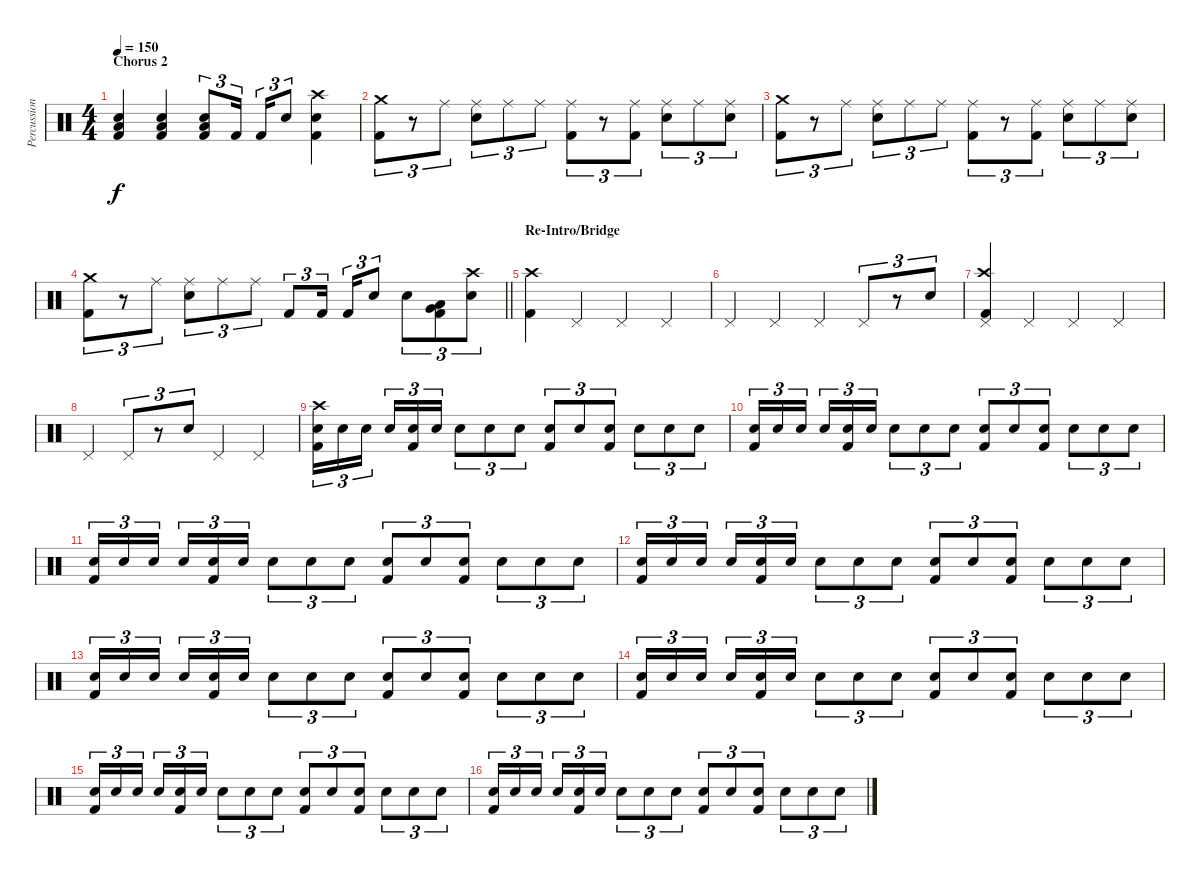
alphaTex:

\track ("Percussion" "Percussion") {instrument percussion}
\staff {score}
\articulation defaults
\ts (4 4)
\section ("" "Chorus 2")
\tempo 150
\clef neutral
\ks c
("Electric Snare (hit)" "Low Floor Tom (hit)" "Kick (hit) 2").4{dy f} ("Electric Snare (hit)" "Low Floor Tom (hit)" "Kick (hit) 2").4 ("Electric Snare (hit)" "Low Floor Tom (hit)" "Kick (hit) 2").8{tu (3 2)} "Kick (hit) 2".16{tu (3 2) beam splitsecondary} "Kick (hit) 2".16{tu (3 2)} "Electric Snare (hit)".8{tu (3 2)} ("Crash high (hit)" "Electric Snare (hit)" "Kick (hit) 2").4 |
("Crash medium (hit)" "Kick (hit) 2").8{tu (3 2)} r.8{tu (3 2)} "Ride (middle)".8{tu (3 2)} ("Ride (middle)" "Electric Snare (hit)").8{tu (3 2)} "Ride (middle)".8{tu (3 2)} "Ride (middle)".8{tu (3 2)} ("Ride (middle)" "Kick (hit) 2").8{tu (3 2)} r.8{tu (3 2)} ("Ride (middle)" "Kick (hit) 2").8{tu (3 2)} ("Ride (middle)" "Electric Snare (hit)").8{tu (3 2)} "Ride (middle)".8{tu (3 2)} ("Ride (middle)" "Electric Snare (hit)").8{tu (3 2)} |
("Crash medium (hit)" "Kick (hit) 2").8{tu (3 2)} r.8{tu (3 2)} "Ride (middle)".8{tu (3 2)} ("Ride (middle)" "Electric Snare (hit)").8{tu (3 2)} "Ride (middle)".8{tu (3 2)} "Ride (middle)".8{tu (3 2)} ("Ride (middle)" "Kick (hit) 2").8{tu (3 2)} r.8{tu (3 2)} ("Ride (middle)" "Kick (hit) 2").8{tu (3 2)} ("Ride (middle)" "Electric Snare (hit)").8{tu (3 2)} "Ride (middle)".8{tu (3 2)} ("Ride (middle)" "Electric Snare (hit)").8{tu (3 2)} |
\barLineRight lightlight
("Crash medium (hit)" "Kick (hit) 2").8{tu (3 2)} r.8{tu (3 2)} "Ride (middle)".8{tu (3 2)} ("Ride (middle)" "Electric Snare (hit)").8{tu (3 2)} "Ride (middle)".8{tu (3 2)} "Ride (middle)".8{tu (3 2)} "Kick (hit) 2".8{tu (3 2)} "Kick (hit) 2".16{tu (3 2) beam splitsecondary} "Kick (hit) 2".16{tu (3 2)} "Electric Snare (hit)".8{tu (3 2)} "Electric Snare (hit)".8{tu (3 2)} ("Very Low Tom (hit)" "Low Floor Tom (hit)" "Kick (hit) 2").8{tu (3 2)} ("Crash high (hit)" "Electric Snare (hit)").8{tu (3 2)} |
\section ("" "Re-Intro/Bridge")
("Crash high (hit)" "Kick (hit) 2").4 "Pedal Hi-Hat (hit)".4 "Pedal Hi-Hat (hit)".4 "Pedal Hi-Hat (hit)".4 |
"Pedal Hi-Hat (hit)".4 "Pedal Hi-Hat (hit)".4 "Pedal Hi-Hat (hit)".4 "Pedal Hi-Hat (hit)".8{tu (3 2)} r.8{tu (3 2)} "Electric Snare (hit)".8{tu (3 2)} |
("Crash high (hit)" "Pedal Hi-Hat (hit)" "Kick (hit) 2").4 "Pedal Hi-Hat (hit)".4 "Pedal Hi-Hat (hit)".4 "Pedal Hi-Hat (hit)".4 |
"Pedal Hi-Hat (hit)".4 "Pedal Hi-Hat (hit)".8{tu (3 2)} r.8{tu (3 2)} "Electric Snare (hit)".8{tu (3 2)} "Pedal Hi-Hat (hit)".4 "Pedal Hi-Hat (hit)".4 |
("Crash high (hit)" "Electric Snare (hit)" "Kick (hit) 2").16{tu (3 2)} "Electric Snare (hit)".16{tu (3 2)} "Electric Snare (hit)".16{tu (3 2) beam splitsecondary} "Electric Snare (hit)".16{tu (3 2)} ("Electric Snare (hit)" "Kick (hit) 2").16{tu (3 2)} "Electric Snare (hit)".16{tu (3 2)} "Electric Snare (hit)".8{tu (3 2)} "Electric Snare (hit)".8{tu (3 2)} "Electric Snare (hit)".8{tu (3 2)} ("Electric Snare (hit)" "Kick (hit) 2").8{tu (3 2)} "Electric Snare (hit)".8{tu (3 2)} ("Electric Snare (hit)" "Kick (hit) 2").8{tu (3 2)} "Electric Snare (hit)".8{tu (3 2)} "Electric Snare (hit)".8{tu (3 2)} "Electric Snare (hit)".8{tu (3 2)} |
("Electric Snare (hit)" "Kick (hit) 2").16{tu (3 2)} "Electric Snare (hit)".16{tu (3 2)} "Electric Snare (hit)".16{tu (3 2) beam splitsecondary} "Electric Snare (hit)".16{tu (3 2)} ("Electric Snare (hit)" "Kick (hit) 2").16{tu (3 2)} "Electric Snare (hit)".16{tu (3 2)} "Electric Snare (hit)".8{tu (3 2)} "Electric Snare (hit)".8{tu (3 2)} "Electric Snare (hit)".8{tu (3 2)} ("Electric Snare (hit)" "Kick (hit) 2").8{tu (3 2)} "Electric Snare (hit)".8{tu (3 2)} ("Electric Snare (hit)" "Kick (hit) 2").8{tu (3 2)} "Electric Snare (hit)".8{tu (3 2)} "Electric Snare (hit)".8{tu (3 2)} "Electric Snare (hit)".8{tu (3 2)} |
("Electric Snare (hit)" "Kick (hit) 2").16{tu (3 2)} "Electric Snare (hit)".16{tu (3 2)} "Electric Snare (hit)".16{tu (3 2) beam splitsecondary} "Electric Snare (hit)".16{tu (3 2)} ("Electric Snare (hit)" "Kick (hit) 2").16{tu (3 2)} "Electric Snare (hit)".16{tu (3 2)} "Electric Snare (hit)".8{tu (3 2)} "Electric Snare (hit)".8{tu (3 2)} "Electric Snare (hit)".8{tu (3 2)} ("Electric Snare (hit)" "Kick (hit) 2").8{tu (3 2)} "Electric Snare (hit)".8{tu (3 2)} ("Electric Snare (hit)" "Kick (hit) 2").8{tu (3 2)} "Electric Snare (hit)".8{tu (3 2)} "Electric Snare (hit)".8{tu (3 2)} "Electric Snare (hit)".8{tu (3 2)} |
("Electric Snare (hit)" "Kick (hit) 2").16{tu (3 2)} "Electric Snare (hit)".16{tu (3 2)} "Electric Snare (hit)".16{tu (3 2) beam splitsecondary} "Electric Snare (hit)".16{tu (3 2)} ("Electric Snare (hit)" "Kick (hit) 2").16{tu (3 2)} "Electric Snare (hit)".16{tu (3 2)} "Electric Snare (hit)".8{tu (3 2)} "Electric Snare (hit)".8{tu (3 2)} "Electric Snare (hit)".8{tu (3 2)} ("Electric Snare (hit)" "Kick (hit) 2").8{tu (3 2)} "Electric Snare (hit)".8{tu (3 2)} ("Electric Snare (hit)" "Kick (hit) 2").8{tu (3 2)} "Electric Snare (hit)".8{tu (3 2)} "Electric Snare (hit)".8{tu (3 2)} "Electric Snare (hit)".8{tu (3 2)} |
("Electric Snare (hit)" "Kick (hit) 2").16{tu (3 2)} "Electric Snare (hit)".16{tu (3 2)} "Electric Snare (hit)".16{tu (3 2) beam splitsecondary} "Electric Snare (hit)".16{tu (3 2)} ("Electric Snare (hit)" "Kick (hit) 2").16{tu (3 2)} "Electric Snare (hit)".16{tu (3 2)} "Electric Snare (hit)".8{tu (3 2)} "Electric Snare (hit)".8{tu (3 2)} "Electric Snare (hit)".8{tu (3 2)} ("Electric Snare (hit)" "Kick (hit) 2").8{tu (3 2)} "Electric Snare (hit)".8{tu (3 2)} ("Electric Snare (hit)" "Kick (hit) 2").8{tu (3 2)} "Electric Snare (hit)".8{tu (3 2)} "Electric Snare (hit)".8{tu (3 2)} "Electric Snare (hit)".8{tu (3 2)} |
("Electric Snare (hit)" "Kick (hit) 2").16{tu (3 2)} "Electric Snare (hit)".16{tu (3 2)} "Electric Snare (hit)".16{tu (3 2) beam splitsecondary} "Electric Snare (hit)".16{tu (3 2)} ("Electric Snare (hit)" "Kick (hit) 2").16{tu (3 2)} "Electric Snare (hit)".16{tu (3 2)} "Electric Snare (hit)".8{tu (3 2)} "Electric Snare (hit)".8{tu (3 2)} "Electric Snare (hit)".8{tu (3 2)} ("Electric Snare (hit)" "Kick (hit) 2").8{tu (3 2)} "Electric Snare (hit)".8{tu (3 2)} ("Electric Snare (hit)" "Kick (hit) 2").8{tu (3 2)} "Electric Snare (hit)".8{tu (3 2)} "Electric Snare (hit)".8{tu (3 2)} "Electric Snare (hit)".8{tu (3 2)} |
("Electric Snare (hit)" "Kick (hit) 2").16{tu (3 2)} "Electric Snare (hit)".16{tu (3 2)} "Electric Snare (hit)".16{tu (3 2) beam splitsecondary} "Electric Snare (hit)".16{tu (3 2)} ("Electric Snare (hit)" "Kick (hit) 2").16{tu (3 2)} "Electric Snare (hit)".16{tu (3 2)} "Electric Snare (hit)".8{tu (3 2)} "Electric Snare (hit)".8{tu (3 2)} "Electric Snare (hit)".8{tu (3 2)} ("Electric Snare (hit)" "Kick (hit) 2").8{tu (3 2)} "Electric Snare (hit)".8{tu (3 2)} ("Electric Snare (hit)" "Kick (hit) 2").8{tu (3 2)} "Electric Snare (hit)".8{tu (3 2)} "Electric Snare (hit)".8{tu (3 2)} "Electric Snare (hit)".8{tu (3 2)} |
("Electric Snare (hit)" "Kick (hit) 2").16{tu (3 2)} "Electric Snare (hit)".16{tu (3 2)} "Electric Snare (hit)".16{tu (3 2) beam splitsecondary} "Electric Snare (hit)".16{tu (3 2)} ("Electric Snare (hit)" "Kick (hit) 2").16{tu (3 2)} "Electric Snare (hit)".16{tu (3 2)} "Electric Snare (hit)".8{tu (3 2)} "Electric Snare (hit)".8{tu (3 2)} "Electric Snare (hit)".8{tu (3 2)} ("Electric Snare (hit)" "Kick (hit) 2").8{tu (3 2)} "Electric Snare (hit)".8{tu (3 2)} ("Electric Snare (hit)" "Kick (hit) 2").8{tu (3 2)} "Electric Snare (hit)".8{tu (3 2)} "Electric Snare (hit)".8{tu (3 2)} "Electric Snare (hit)".8{tu (3 2)}
